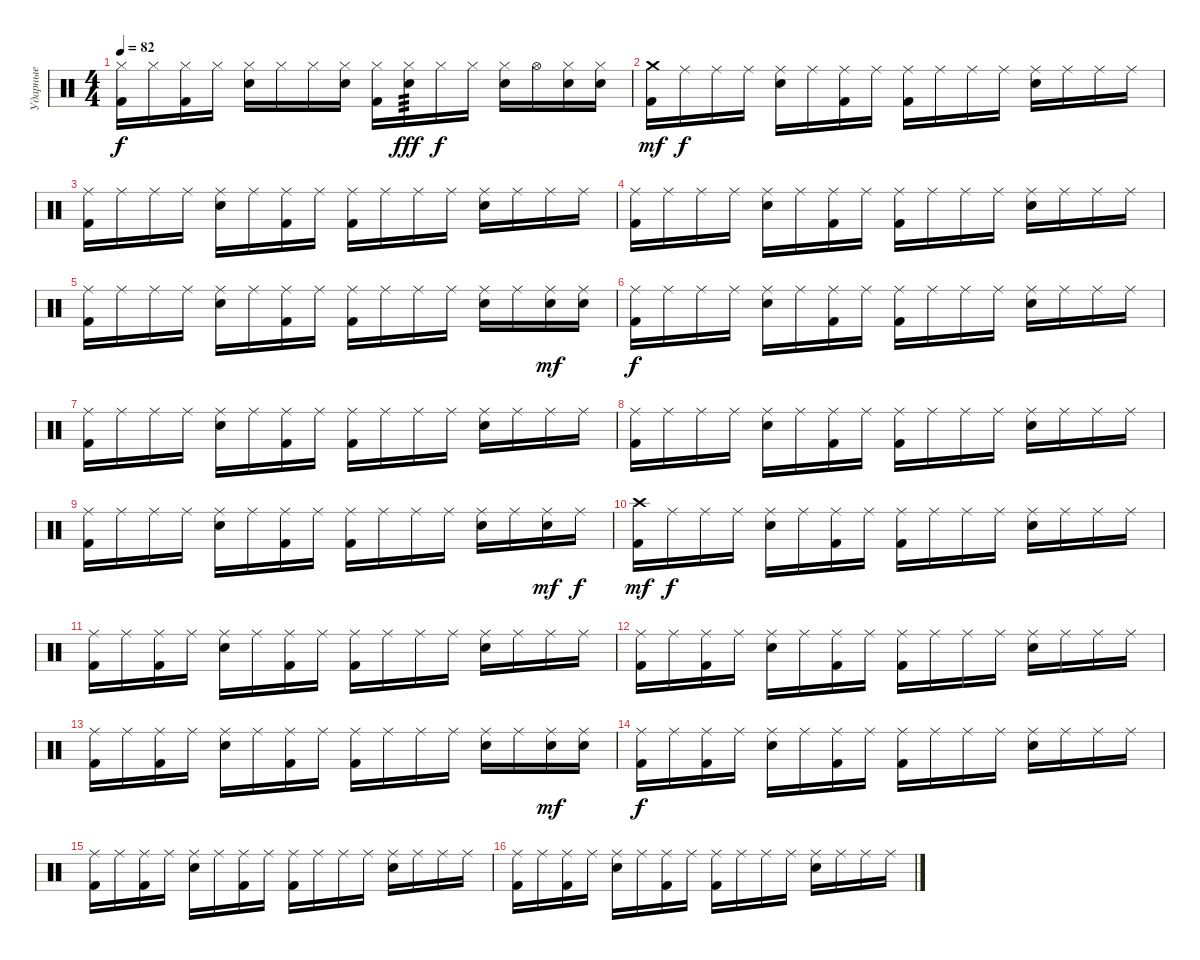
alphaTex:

\track ("Ударные" "Ударные") {instrument percussion}
\staff {score}
\articulation defaults
\ts (4 4)
\tempo 82
\clef neutral
\ks c
("Hi-Hat (closed)" "Kick (hit) 2").16{dy f} "Hi-Hat (closed)".16 ("Hi-Hat (closed)" "Kick (hit) 2").16 "Hi-Hat (closed)".16 ("Hi-Hat (closed)" "Electric Snare (hit)").16 "Hi-Hat (closed)".16 "Hi-Hat (closed)".16 ("Hi-Hat (closed)" "Electric Snare (hit)").16 ("Hi-Hat (closed)" "Kick (hit) 2").16 ("Hi-Hat (closed)" "Electric Snare (hit)").16{tp 3 dy fff} "Hi-Hat (closed)".16{dy f} "Hi-Hat (closed)".16 ("Hi-Hat (closed)" "Electric Snare (hit)").16 "Hi-Hat (open)".16 ("Hi-Hat (closed)" "Electric Snare (hit)").16 ("Hi-Hat (closed)" "Electric Snare (hit)").16 |
("Crash medium (hit)" "Kick (hit) 2").16{dy mf} "Ride (middle)".16{dy f} "Ride (middle)".16 "Ride (middle)".16 ("Ride (middle)" "Electric Snare (hit)").16 "Ride (middle)".16 ("Ride (middle)" "Kick (hit) 2").16 "Ride (middle)".16 ("Ride (middle)" "Kick (hit) 2").16 "Ride (middle)".16 "Ride (middle)".16 "Ride (middle)".16 ("Ride (middle)" "Electric Snare (hit)").16 "Ride (middle)".16 "Ride (middle)".16 "Ride (middle)".16 |
("Ride (middle)" "Kick (hit) 2").16 "Ride (middle)".16 "Ride (middle)".16 "Ride (middle)".16 ("Ride (middle)" "Electric Snare (hit)").16 "Ride (middle)".16 ("Ride (middle)" "Kick (hit) 2").16 "Ride (middle)".16 ("Ride (middle)" "Kick (hit) 2").16 "Ride (middle)".16 "Ride (middle)".16 "Ride (middle)".16 ("Ride (middle)" "Electric Snare (hit)").16 "Ride (middle)".16 "Ride (middle)".16 "Ride (middle)".16 |
("Ride (middle)" "Kick (hit) 2").16 "Ride (middle)".16 "Ride (middle)".16 "Ride (middle)".16 ("Ride (middle)" "Electric Snare (hit)").16 "Ride (middle)".16 ("Ride (middle)" "Kick (hit) 2").16 "Ride (middle)".16 ("Ride (middle)" "Kick (hit) 2").16 "Ride (middle)".16 "Ride (middle)".16 "Ride (middle)".16 ("Ride (middle)" "Electric Snare (hit)").16 "Ride (middle)".16 "Ride (middle)".16 "Ride (middle)".16 |
("Ride (middle)" "Kick (hit) 2").16 "Ride (middle)".16 "Ride (middle)".16 "Ride (middle)".16 ("Ride (middle)" "Electric Snare (hit)").16 "Ride (middle)".16 ("Ride (middle)" "Kick (hit) 2").16 "Ride (middle)".16 ("Ride (middle)" "Kick (hit) 2").16 "Ride (middle)".16 "Ride (middle)".16 "Ride (middle)".16 ("Ride (middle)" "Electric Snare (hit)").16 "Ride (middle)".16 ("Ride (middle)" "Electric Snare (hit)").16{dy mf} ("Ride (middle)" "Electric Snare (hit)").16 |
("Ride (middle)" "Kick (hit) 2").16{dy f} "Ride (middle)".16 "Ride (middle)".16 "Ride (middle)".16 ("Ride (middle)" "Electric Snare (hit)").16 "Ride (middle)".16 ("Ride (middle)" "Kick (hit) 2").16 "Ride (middle)".16 ("Ride (middle)" "Kick (hit) 2").16 "Ride (middle)".16 "Ride (middle)".16 "Ride (middle)".16 ("Ride (middle)" "Electric Snare (hit)").16 "Ride (middle)".16 "Ride (middle)".16 "Ride (middle)".16 |
("Ride (middle)" "Kick (hit) 2").16 "Ride (middle)".16 "Ride (middle)".16 "Ride (middle)".16 ("Ride (middle)" "Electric Snare (hit)").16 "Ride (middle)".16 ("Ride (middle)" "Kick (hit) 2").16 "Ride (middle)".16 ("Ride (middle)" "Kick (hit) 2").16 "Ride (middle)".16 "Ride (middle)".16 "Ride (middle)".16 ("Ride (middle)" "Electric Snare (hit)").16 "Ride (middle)".16 "Ride (middle)".16 "Ride (middle)".16 |
("Ride (middle)" "Kick (hit) 2").16 "Ride (middle)".16 "Ride (middle)".16 "Ride (middle)".16 ("Ride (middle)" "Electric Snare (hit)").16 "Ride (middle)".16 ("Ride (middle)" "Kick (hit) 2").16 "Ride (middle)".16 ("Ride (middle)" "Kick (hit) 2").16 "Ride (middle)".16 "Ride (middle)".16 "Ride (middle)".16 ("Ride (middle)" "Electric Snare (hit)").16 "Ride (middle)".16 "Ride (middle)".16 "Ride (middle)".16 |
("Ride (middle)" "Kick (hit) 2").16 "Ride (middle)".16 "Ride (middle)".16 "Ride (middle)".16 ("Ride (middle)" "Electric Snare (hit)").16 "Ride (middle)".16 ("Ride (middle)" "Kick (hit) 2").16 "Ride (middle)".16 ("Ride (middle)" "Kick (hit) 2").16 "Ride (middle)".16 "Ride (middle)".16 "Ride (middle)".16 ("Ride (middle)" "Electric Snare (hit)").16 "Ride (middle)".16 ("Ride (middle)" "Electric Snare (hit)").16{dy mf} "Ride (middle)".16{dy f} |
("Crash high (hit)" "Kick (hit) 2").16{dy mf} "Ride (middle)".16{dy f} "Ride (middle)".16 "Ride (middle)".16 ("Ride (middle)" "Electric Snare (hit)").16 "Ride (middle)".16 ("Ride (middle)" "Kick (hit) 2").16 "Ride (middle)".16 ("Ride (middle)" "Kick (hit) 2").16 "Ride (middle)".16 "Ride (middle)".16 "Ride (middle)".16 ("Ride (middle)" "Electric Snare (hit)").16 "Ride (middle)".16 "Ride (middle)".16 "Ride (middle)".16 |
("Ride (middle)" "Kick (hit) 2").16 "Ride (middle)".16 ("Ride (middle)" "Kick (hit) 2").16 "Ride (middle)".16 ("Ride (middle)" "Electric Snare (hit)").16 "Ride (middle)".16 ("Ride (middle)" "Kick (hit) 2").16 "Ride (middle)".16 ("Ride (middle)" "Kick (hit) 2").16 "Ride (middle)".16 "Ride (middle)".16 "Ride (middle)".16 ("Ride (middle)" "Electric Snare (hit)").16 "Ride (middle)".16 "Ride (middle)".16 "Ride (middle)".16 |
("Ride (middle)" "Kick (hit) 2").16 "Ride (middle)".16 ("Ride (middle)" "Kick (hit) 2").16 "Ride (middle)".16 ("Ride (middle)" "Electric Snare (hit)").16 "Ride (middle)".16 ("Ride (middle)" "Kick (hit) 2").16 "Ride (middle)".16 ("Ride (middle)" "Kick (hit) 2").16 "Ride (middle)".16 "Ride (middle)".16 "Ride (middle)".16 ("Ride (middle)" "Electric Snare (hit)").16 "Ride (middle)".16 "Ride (middle)".16 "Ride (middle)".16 |
("Ride (middle)" "Kick (hit) 2").16 "Ride (middle)".16 ("Ride (middle)" "Kick (hit) 2").16 "Ride (middle)".16 ("Ride (middle)" "Electric Snare (hit)").16 "Ride (middle)".16 ("Ride (middle)" "Kick (hit) 2").16 "Ride (middle)".16 ("Ride (middle)" "Kick (hit) 2").16 "Ride (middle)".16 "Ride (middle)".16 "Ride (middle)".16 ("Ride (middle)" "Electric Snare (hit)").16 "Ride (middle)".16 ("Ride (middle)" "Electric Snare (hit)").16{dy mf} ("Ride (middle)" "Electric Snare (hit)").16 |
("Ride (middle)" "Kick (hit) 2").16{dy f} "Ride (middle)".16 ("Ride (middle)" "Kick (hit) 2").16 "Ride (middle)".16 ("Ride (middle)" "Electric Snare (hit)").16 "Ride (middle)".16 ("Ride (middle)" "Kick (hit) 2").16 "Ride (middle)".16 ("Ride (middle)" "Kick (hit) 2").16 "Ride (middle)".16 "Ride (middle)".16 "Ride (middle)".16 ("Ride (middle)" "Electric Snare (hit)").16 "Ride (middle)".16 "Ride (middle)".16 "Ride (middle)".16 |
("Ride (middle)" "Kick (hit) 2").16 "Ride (middle)".16 ("Ride (middle)" "Kick (hit) 2").16 "Ride (middle)".16 ("Ride (middle)" "Electric Snare (hit)").16 "Ride (middle)".16 ("Ride (middle)" "Kick (hit) 2").16 "Ride (middle)".16 ("Ride (middle)" "Kick (hit) 2").16 "Ride (middle)".16 "Ride (middle)".16 "Ride (middle)".16 ("Ride (middle)" "Electric Snare (hit)").16 "Ride (middle)".16 "Ride (middle)".16 "Ride (middle)".16 |
("Ride (middle)" "Kick (hit) 2").16 "Ride (middle)".16 ("Ride (middle)" "Kick (hit) 2").16 "Ride (middle)".16 ("Ride (middle)" "Electric Snare (hit)").16 "Ride (middle)".16 ("Ride (middle)" "Kick (hit) 2").16 "Ride (middle)".16 ("Ride (middle)" "Kick (hit) 2").16 "Ride (middle)".16 "Ride (middle)".16 "Ride (middle)".16 ("Ride (middle)" "Electric Snare (hit)").16 "Ride (middle)".16 "Ride (middle)".16 "Ride (middle)".16
